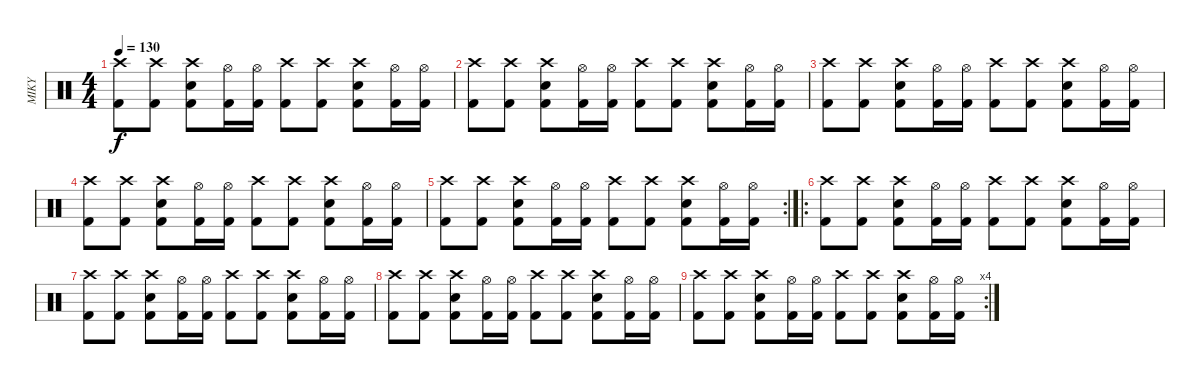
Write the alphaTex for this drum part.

\track ("MIKY" "MIKY") {instrument percussion}
\staff {score}
\articulation defaults
\ts (4 4)
\tempo 130
\clef neutral
\ks c
("Crash high (hit)" "Kick (hit) 2").8{dy f} ("Crash high (hit)" "Kick (hit) 2").8 ("Crash high (hit)" "Snare (hit) 2" "Kick (hit) 2").8 ("Hi-Hat (open)" "Kick (hit) 2").16 ("Hi-Hat (open)" "Kick (hit) 2").16 ("Crash high (hit)" "Kick (hit) 2").8 ("Crash high (hit)" "Kick (hit) 2").8 ("Crash high (hit)" "Snare (hit) 2" "Kick (hit) 2").8 ("Hi-Hat (open)" "Kick (hit) 2").16 ("Hi-Hat (open)" "Kick (hit) 2").16 |
("Crash high (hit)" "Kick (hit) 2").8 ("Crash high (hit)" "Kick (hit) 2").8 ("Crash high (hit)" "Snare (hit) 2" "Kick (hit) 2").8 ("Hi-Hat (open)" "Kick (hit) 2").16 ("Hi-Hat (open)" "Kick (hit) 2").16 ("Crash high (hit)" "Kick (hit) 2").8 ("Crash high (hit)" "Kick (hit) 2").8 ("Crash high (hit)" "Snare (hit) 2" "Kick (hit) 2").8 ("Hi-Hat (open)" "Kick (hit) 2").16 ("Hi-Hat (open)" "Kick (hit) 2").16 |
("Crash high (hit)" "Kick (hit) 2").8 ("Crash high (hit)" "Kick (hit) 2").8 ("Crash high (hit)" "Snare (hit) 2" "Kick (hit) 2").8 ("Hi-Hat (open)" "Kick (hit) 2").16 ("Hi-Hat (open)" "Kick (hit) 2").16 ("Crash high (hit)" "Kick (hit) 2").8 ("Crash high (hit)" "Kick (hit) 2").8 ("Crash high (hit)" "Snare (hit) 2" "Kick (hit) 2").8 ("Hi-Hat (open)" "Kick (hit) 2").16 ("Hi-Hat (open)" "Kick (hit) 2").16 |
("Crash high (hit)" "Kick (hit) 2").8 ("Crash high (hit)" "Kick (hit) 2").8 ("Crash high (hit)" "Snare (hit) 2" "Kick (hit) 2").8 ("Hi-Hat (open)" "Kick (hit) 2").16 ("Hi-Hat (open)" "Kick (hit) 2").16 ("Crash high (hit)" "Kick (hit) 2").8 ("Crash high (hit)" "Kick (hit) 2").8 ("Crash high (hit)" "Snare (hit) 2" "Kick (hit) 2").8 ("Hi-Hat (open)" "Kick (hit) 2").16 ("Hi-Hat (open)" "Kick (hit) 2").16 |
\rc 2
("Crash high (hit)" "Kick (hit) 2").8 ("Crash high (hit)" "Kick (hit) 2").8 ("Crash high (hit)" "Snare (hit) 2" "Kick (hit) 2").8 ("Hi-Hat (open)" "Kick (hit) 2").16 ("Hi-Hat (open)" "Kick (hit) 2").16 ("Crash high (hit)" "Kick (hit) 2").8 ("Crash high (hit)" "Kick (hit) 2").8 ("Crash high (hit)" "Snare (hit) 2" "Kick (hit) 2").8 ("Hi-Hat (open)" "Kick (hit) 2").16 ("Hi-Hat (open)" "Kick (hit) 2").16 |
\ro
("Crash high (hit)" "Kick (hit) 2").8 ("Crash high (hit)" "Kick (hit) 2").8 ("Crash high (hit)" "Snare (hit) 2" "Kick (hit) 2").8 ("Hi-Hat (open)" "Kick (hit) 2").16 ("Hi-Hat (open)" "Kick (hit) 2").16 ("Crash high (hit)" "Kick (hit) 2").8 ("Crash high (hit)" "Kick (hit) 2").8 ("Crash high (hit)" "Snare (hit) 2" "Kick (hit) 2").8 ("Hi-Hat (open)" "Kick (hit) 2").16 ("Hi-Hat (open)" "Kick (hit) 2").16 |
("Crash high (hit)" "Kick (hit) 2").8 ("Crash high (hit)" "Kick (hit) 2").8 ("Crash high (hit)" "Snare (hit) 2" "Kick (hit) 2").8 ("Hi-Hat (open)" "Kick (hit) 2").16 ("Hi-Hat (open)" "Kick (hit) 2").16 ("Crash high (hit)" "Kick (hit) 2").8 ("Crash high (hit)" "Kick (hit) 2").8 ("Crash high (hit)" "Snare (hit) 2" "Kick (hit) 2").8 ("Hi-Hat (open)" "Kick (hit) 2").16 ("Hi-Hat (open)" "Kick (hit) 2").16 |
("Crash high (hit)" "Kick (hit) 2").8 ("Crash high (hit)" "Kick (hit) 2").8 ("Crash high (hit)" "Snare (hit) 2" "Kick (hit) 2").8 ("Hi-Hat (open)" "Kick (hit) 2").16 ("Hi-Hat (open)" "Kick (hit) 2").16 ("Crash high (hit)" "Kick (hit) 2").8 ("Crash high (hit)" "Kick (hit) 2").8 ("Crash high (hit)" "Snare (hit) 2" "Kick (hit) 2").8 ("Hi-Hat (open)" "Kick (hit) 2").16 ("Hi-Hat (open)" "Kick (hit) 2").16 |
\rc 4
("Crash high (hit)" "Kick (hit) 2").8 ("Crash high (hit)" "Kick (hit) 2").8 ("Crash high (hit)" "Snare (hit) 2" "Kick (hit) 2").8 ("Hi-Hat (open)" "Kick (hit) 2").16 ("Hi-Hat (open)" "Kick (hit) 2").16 ("Crash high (hit)" "Kick (hit) 2").8 ("Crash high (hit)" "Kick (hit) 2").8 ("Crash high (hit)" "Snare (hit) 2" "Kick (hit) 2").8 ("Hi-Hat (open)" "Kick (hit) 2").16 ("Hi-Hat (open)" "Kick (hit) 2").16
